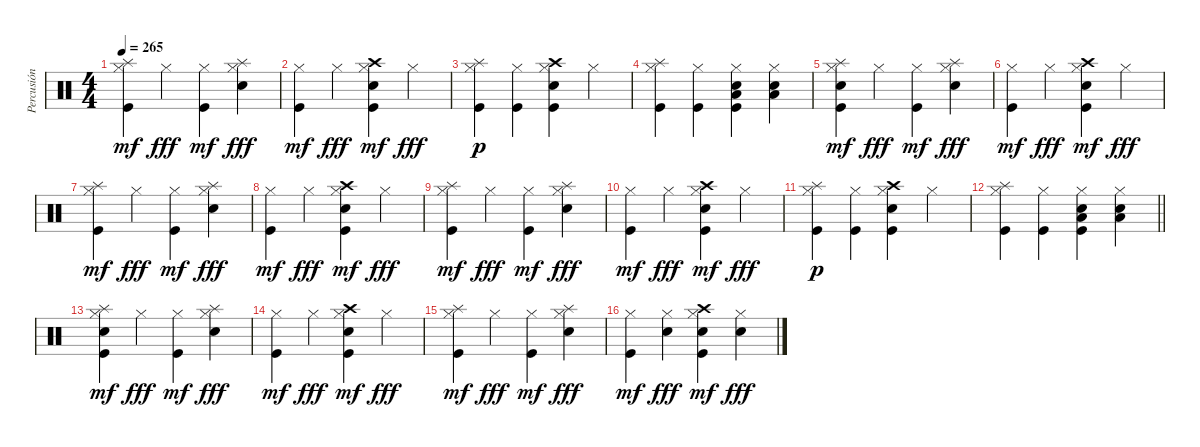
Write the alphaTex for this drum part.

\track ("Percusión" "Percusión") {instrument percussion}
\staff {score}
\articulation defaults
\ts (4 4)
\tempo 265
\clef neutral
\ks c
("Splash (hit)" "Hi-Hat (closed)" "Kick (hit)").4{dy mf} "Hi-Hat (closed)".4{dy fff} ("Hi-Hat (closed)" "Kick (hit)").4{dy mf} ("Splash (hit)" "Electric Snare (hit)" "Hi-Hat (closed)").4{dy fff} |
("Hi-Hat (closed)" "Kick (hit)").4{dy mf} "Hi-Hat (closed)".4{dy fff} ("Crash high (hit)" "Electric Snare (hit)" "Hi-Hat (closed)" "Kick (hit)").4{dy mf} "Hi-Hat (closed)".4{dy fff} |
("Splash (hit)" "Hi-Hat (closed)" "Kick (hit)").4{dy p} ("Hi-Hat (closed)" "Kick (hit)").4 ("Crash high (hit)" "Electric Snare (hit)" "Hi-Hat (closed)" "Kick (hit)").4 "Hi-Hat (closed)".4 |
("Splash (hit)" "Hi-Hat (closed)" "Kick (hit)").4 ("Hi-Hat (closed)" "Kick (hit)").4 ("Low Floor Tom (hit)" "Electric Snare (hit)" "Hi-Hat (closed)" "Kick (hit)").4 ("Low Floor Tom (hit)" "Electric Snare (hit)" "Hi-Hat (closed)").4 |
("Splash (hit)" "Electric Snare (hit)" "Hi-Hat (closed)" "Kick (hit)").4{dy mf} "Hi-Hat (closed)".4{dy fff} ("Hi-Hat (closed)" "Kick (hit)").4{dy mf} ("Splash (hit)" "Electric Snare (hit)" "Hi-Hat (closed)").4{dy fff} |
("Hi-Hat (closed)" "Kick (hit)").4{dy mf} "Hi-Hat (closed)".4{dy fff} ("Crash high (hit)" "Electric Snare (hit)" "Hi-Hat (closed)" "Kick (hit)").4{dy mf} "Hi-Hat (closed)".4{dy fff} |
("Splash (hit)" "Hi-Hat (closed)" "Kick (hit)").4{dy mf} "Hi-Hat (closed)".4{dy fff} ("Hi-Hat (closed)" "Kick (hit)").4{dy mf} ("Splash (hit)" "Electric Snare (hit)" "Hi-Hat (closed)").4{dy fff} |
("Hi-Hat (closed)" "Kick (hit)").4{dy mf} "Hi-Hat (closed)".4{dy fff} ("Crash high (hit)" "Electric Snare (hit)" "Hi-Hat (closed)" "Kick (hit)").4{dy mf} "Hi-Hat (closed)".4{dy fff} |
("Splash (hit)" "Hi-Hat (closed)" "Kick (hit)").4{dy mf} "Hi-Hat (closed)".4{dy fff} ("Hi-Hat (closed)" "Kick (hit)").4{dy mf} ("Splash (hit)" "Electric Snare (hit)" "Hi-Hat (closed)").4{dy fff} |
("Hi-Hat (closed)" "Kick (hit)").4{dy mf} "Hi-Hat (closed)".4{dy fff} ("Crash high (hit)" "Electric Snare (hit)" "Hi-Hat (closed)" "Kick (hit)").4{dy mf} "Hi-Hat (closed)".4{dy fff} |
("Splash (hit)" "Hi-Hat (closed)" "Kick (hit)").4{dy p} ("Hi-Hat (closed)" "Kick (hit)").4 ("Crash high (hit)" "Electric Snare (hit)" "Hi-Hat (closed)" "Kick (hit)").4 "Hi-Hat (closed)".4 |
\barLineRight lightlight
("Splash (hit)" "Hi-Hat (closed)" "Kick (hit)").4 ("Hi-Hat (closed)" "Kick (hit)").4 ("Low Floor Tom (hit)" "Electric Snare (hit)" "Hi-Hat (closed)" "Kick (hit)").4 ("Low Floor Tom (hit)" "Electric Snare (hit)" "Hi-Hat (closed)").4 |
("Splash (hit)" "Electric Snare (hit)" "Hi-Hat (closed)" "Kick (hit)").4{dy mf} "Hi-Hat (closed)".4{dy fff} ("Hi-Hat (closed)" "Kick (hit)").4{dy mf} ("Splash (hit)" "Electric Snare (hit)" "Hi-Hat (closed)").4{dy fff} |
("Hi-Hat (closed)" "Kick (hit)").4{dy mf} "Hi-Hat (closed)".4{dy fff} ("Crash high (hit)" "Electric Snare (hit)" "Hi-Hat (closed)" "Kick (hit)").4{dy mf} "Hi-Hat (closed)".4{dy fff} |
("Splash (hit)" "Hi-Hat (closed)" "Kick (hit)").4{dy mf} "Hi-Hat (closed)".4{dy fff} ("Hi-Hat (closed)" "Kick (hit)").4{dy mf} ("Splash (hit)" "Electric Snare (hit)" "Hi-Hat (closed)").4{dy fff} |
("Hi-Hat (closed)" "Kick (hit)").4{dy mf} ("Electric Snare (hit)" "Hi-Hat (closed)").4{dy fff} ("Crash high (hit)" "Electric Snare (hit)" "Hi-Hat (closed)" "Kick (hit)").4{dy mf} ("Electric Snare (hit)" "Hi-Hat (closed)").4{dy fff}
